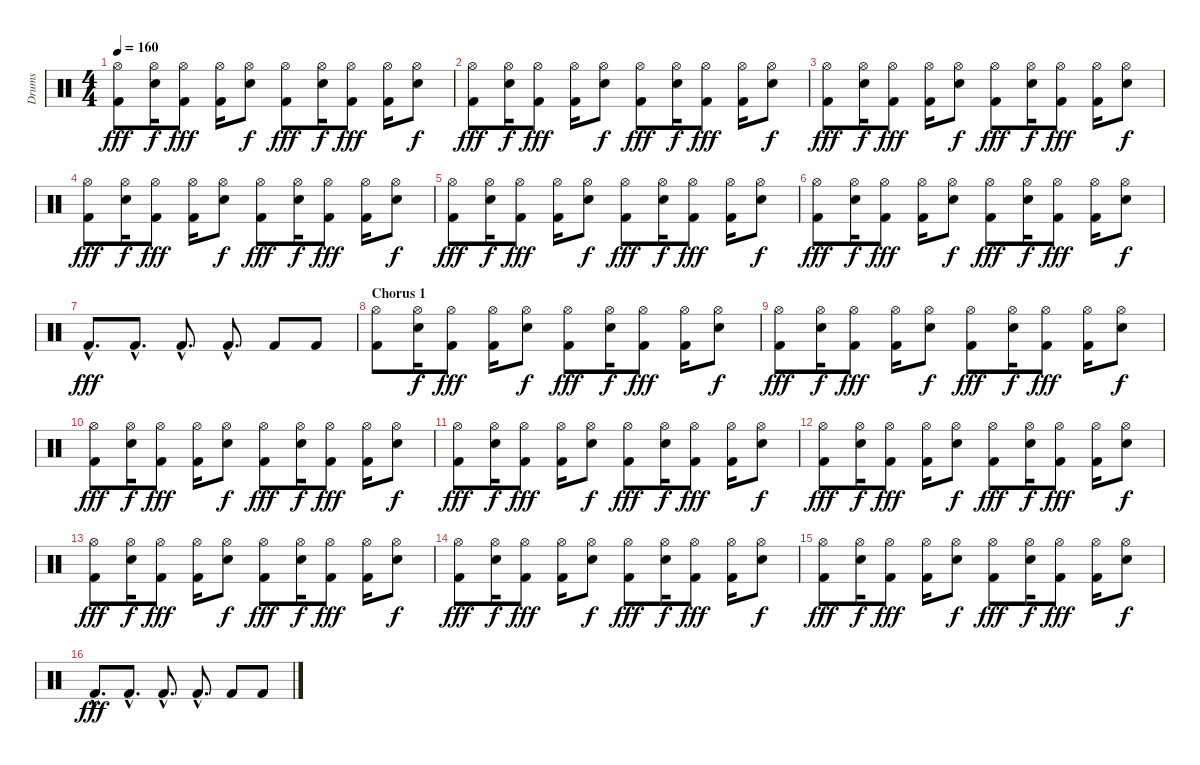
\track ("Drums" "Drums") {instrument percussion}
\staff {score}
\articulation defaults
\ts (4 4)
\tempo 160
\clef neutral
\ks c
("Hi-Hat (open)" "Kick (hit) 2").8{dy fff} ("Hi-Hat (open)" "Electric Snare (hit)").16{dy f} ("Hi-Hat (open)" "Kick (hit) 2").8{dy fff} ("Hi-Hat (open)" "Kick (hit) 2").16 ("Hi-Hat (open)" "Electric Snare (hit)").8{dy f} ("Hi-Hat (open)" "Kick (hit) 2").8{dy fff} ("Hi-Hat (open)" "Electric Snare (hit)").16{dy f} ("Hi-Hat (open)" "Kick (hit) 2").8{dy fff} ("Hi-Hat (open)" "Kick (hit) 2").16 ("Hi-Hat (open)" "Electric Snare (hit)").8{dy f} |
("Hi-Hat (open)" "Kick (hit) 2").8{dy fff} ("Hi-Hat (open)" "Electric Snare (hit)").16{dy f} ("Hi-Hat (open)" "Kick (hit) 2").8{dy fff} ("Hi-Hat (open)" "Kick (hit) 2").16 ("Hi-Hat (open)" "Electric Snare (hit)").8{dy f} ("Hi-Hat (open)" "Kick (hit) 2").8{dy fff} ("Hi-Hat (open)" "Electric Snare (hit)").16{dy f} ("Hi-Hat (open)" "Kick (hit) 2").8{dy fff} ("Hi-Hat (open)" "Kick (hit) 2").16 ("Hi-Hat (open)" "Electric Snare (hit)").8{dy f} |
("Hi-Hat (open)" "Kick (hit) 2").8{dy fff} ("Hi-Hat (open)" "Electric Snare (hit)").16{dy f} ("Hi-Hat (open)" "Kick (hit) 2").8{dy fff} ("Hi-Hat (open)" "Kick (hit) 2").16 ("Hi-Hat (open)" "Electric Snare (hit)").8{dy f} ("Hi-Hat (open)" "Kick (hit) 2").8{dy fff} ("Hi-Hat (open)" "Electric Snare (hit)").16{dy f} ("Hi-Hat (open)" "Kick (hit) 2").8{dy fff} ("Hi-Hat (open)" "Kick (hit) 2").16 ("Hi-Hat (open)" "Electric Snare (hit)").8{dy f} |
("Hi-Hat (open)" "Kick (hit) 2").8{dy fff} ("Hi-Hat (open)" "Electric Snare (hit)").16{dy f} ("Hi-Hat (open)" "Kick (hit) 2").8{dy fff} ("Hi-Hat (open)" "Kick (hit) 2").16 ("Hi-Hat (open)" "Electric Snare (hit)").8{dy f} ("Hi-Hat (open)" "Kick (hit) 2").8{dy fff} ("Hi-Hat (open)" "Electric Snare (hit)").16{dy f} ("Hi-Hat (open)" "Kick (hit) 2").8{dy fff} ("Hi-Hat (open)" "Kick (hit) 2").16 ("Hi-Hat (open)" "Electric Snare (hit)").8{dy f} |
("Hi-Hat (open)" "Kick (hit) 2").8{dy fff} ("Hi-Hat (open)" "Electric Snare (hit)").16{dy f} ("Hi-Hat (open)" "Kick (hit) 2").8{dy fff} ("Hi-Hat (open)" "Kick (hit) 2").16 ("Hi-Hat (open)" "Electric Snare (hit)").8{dy f} ("Hi-Hat (open)" "Kick (hit) 2").8{dy fff} ("Hi-Hat (open)" "Electric Snare (hit)").16{dy f} ("Hi-Hat (open)" "Kick (hit) 2").8{dy fff} ("Hi-Hat (open)" "Kick (hit) 2").16 ("Hi-Hat (open)" "Electric Snare (hit)").8{dy f} |
("Hi-Hat (open)" "Kick (hit) 2").8{dy fff} ("Hi-Hat (open)" "Electric Snare (hit)").16{dy f} ("Hi-Hat (open)" "Kick (hit) 2").8{dy fff} ("Hi-Hat (open)" "Kick (hit) 2").16 ("Hi-Hat (open)" "Electric Snare (hit)").8{dy f} ("Hi-Hat (open)" "Kick (hit) 2").8{dy fff} ("Hi-Hat (open)" "Electric Snare (hit)").16{dy f} ("Hi-Hat (open)" "Kick (hit) 2").8{dy fff} ("Hi-Hat (open)" "Kick (hit) 2").16 ("Hi-Hat (open)" "Electric Snare (hit)").8{dy f} |
"Kick (hit) 2"{hac}.8{d dy fff} "Kick (hit) 2"{hac}.8{d} "Kick (hit) 2"{hac}.8{d} "Kick (hit) 2"{hac}.8{d} "Kick (hit) 2".8 "Kick (hit) 2".8 |
\section ("" "Chorus 1")
("Hi-Hat (open)" "Kick (hit) 2").8 ("Hi-Hat (open)" "Electric Snare (hit)").16{dy f} ("Hi-Hat (open)" "Kick (hit) 2").8{dy fff} ("Hi-Hat (open)" "Kick (hit) 2").16 ("Hi-Hat (open)" "Electric Snare (hit)").8{dy f} ("Hi-Hat (open)" "Kick (hit) 2").8{dy fff} ("Hi-Hat (open)" "Electric Snare (hit)").16{dy f} ("Hi-Hat (open)" "Kick (hit) 2").8{dy fff} ("Hi-Hat (open)" "Kick (hit) 2").16 ("Hi-Hat (open)" "Electric Snare (hit)").8{dy f} |
("Hi-Hat (open)" "Kick (hit) 2").8{dy fff} ("Hi-Hat (open)" "Electric Snare (hit)").16{dy f} ("Hi-Hat (open)" "Kick (hit) 2").8{dy fff} ("Hi-Hat (open)" "Kick (hit) 2").16 ("Hi-Hat (open)" "Electric Snare (hit)").8{dy f} ("Hi-Hat (open)" "Kick (hit) 2").8{dy fff} ("Hi-Hat (open)" "Electric Snare (hit)").16{dy f} ("Hi-Hat (open)" "Kick (hit) 2").8{dy fff} ("Hi-Hat (open)" "Kick (hit) 2").16 ("Hi-Hat (open)" "Electric Snare (hit)").8{dy f} |
("Hi-Hat (open)" "Kick (hit) 2").8{dy fff} ("Hi-Hat (open)" "Electric Snare (hit)").16{dy f} ("Hi-Hat (open)" "Kick (hit) 2").8{dy fff} ("Hi-Hat (open)" "Kick (hit) 2").16 ("Hi-Hat (open)" "Electric Snare (hit)").8{dy f} ("Hi-Hat (open)" "Kick (hit) 2").8{dy fff} ("Hi-Hat (open)" "Electric Snare (hit)").16{dy f} ("Hi-Hat (open)" "Kick (hit) 2").8{dy fff} ("Hi-Hat (open)" "Kick (hit) 2").16 ("Hi-Hat (open)" "Electric Snare (hit)").8{dy f} |
("Hi-Hat (open)" "Kick (hit) 2").8{dy fff} ("Hi-Hat (open)" "Electric Snare (hit)").16{dy f} ("Hi-Hat (open)" "Kick (hit) 2").8{dy fff} ("Hi-Hat (open)" "Kick (hit) 2").16 ("Hi-Hat (open)" "Electric Snare (hit)").8{dy f} ("Hi-Hat (open)" "Kick (hit) 2").8{dy fff} ("Hi-Hat (open)" "Electric Snare (hit)").16{dy f} ("Hi-Hat (open)" "Kick (hit) 2").8{dy fff} ("Hi-Hat (open)" "Kick (hit) 2").16 ("Hi-Hat (open)" "Electric Snare (hit)").8{dy f} |
("Hi-Hat (open)" "Kick (hit) 2").8{dy fff} ("Hi-Hat (open)" "Electric Snare (hit)").16{dy f} ("Hi-Hat (open)" "Kick (hit) 2").8{dy fff} ("Hi-Hat (open)" "Kick (hit) 2").16 ("Hi-Hat (open)" "Electric Snare (hit)").8{dy f} ("Hi-Hat (open)" "Kick (hit) 2").8{dy fff} ("Hi-Hat (open)" "Electric Snare (hit)").16{dy f} ("Hi-Hat (open)" "Kick (hit) 2").8{dy fff} ("Hi-Hat (open)" "Kick (hit) 2").16 ("Hi-Hat (open)" "Electric Snare (hit)").8{dy f} |
("Hi-Hat (open)" "Kick (hit) 2").8{dy fff} ("Hi-Hat (open)" "Electric Snare (hit)").16{dy f} ("Hi-Hat (open)" "Kick (hit) 2").8{dy fff} ("Hi-Hat (open)" "Kick (hit) 2").16 ("Hi-Hat (open)" "Electric Snare (hit)").8{dy f} ("Hi-Hat (open)" "Kick (hit) 2").8{dy fff} ("Hi-Hat (open)" "Electric Snare (hit)").16{dy f} ("Hi-Hat (open)" "Kick (hit) 2").8{dy fff} ("Hi-Hat (open)" "Kick (hit) 2").16 ("Hi-Hat (open)" "Electric Snare (hit)").8{dy f} |
("Hi-Hat (open)" "Kick (hit) 2").8{dy fff} ("Hi-Hat (open)" "Electric Snare (hit)").16{dy f} ("Hi-Hat (open)" "Kick (hit) 2").8{dy fff} ("Hi-Hat (open)" "Kick (hit) 2").16 ("Hi-Hat (open)" "Electric Snare (hit)").8{dy f} ("Hi-Hat (open)" "Kick (hit) 2").8{dy fff} ("Hi-Hat (open)" "Electric Snare (hit)").16{dy f} ("Hi-Hat (open)" "Kick (hit) 2").8{dy fff} ("Hi-Hat (open)" "Kick (hit) 2").16 ("Hi-Hat (open)" "Electric Snare (hit)").8{dy f} |
("Hi-Hat (open)" "Kick (hit) 2").8{dy fff} ("Hi-Hat (open)" "Electric Snare (hit)").16{dy f} ("Hi-Hat (open)" "Kick (hit) 2").8{dy fff} ("Hi-Hat (open)" "Kick (hit) 2").16 ("Hi-Hat (open)" "Electric Snare (hit)").8{dy f} ("Hi-Hat (open)" "Kick (hit) 2").8{dy fff} ("Hi-Hat (open)" "Electric Snare (hit)").16{dy f} ("Hi-Hat (open)" "Kick (hit) 2").8{dy fff} ("Hi-Hat (open)" "Kick (hit) 2").16 ("Hi-Hat (open)" "Electric Snare (hit)").8{dy f} |
"Kick (hit) 2"{hac}.8{d dy fff} "Kick (hit) 2"{hac}.8{d} "Kick (hit) 2"{hac}.8{d} "Kick (hit) 2"{hac}.8{d} "Kick (hit) 2".8 "Kick (hit) 2".8
